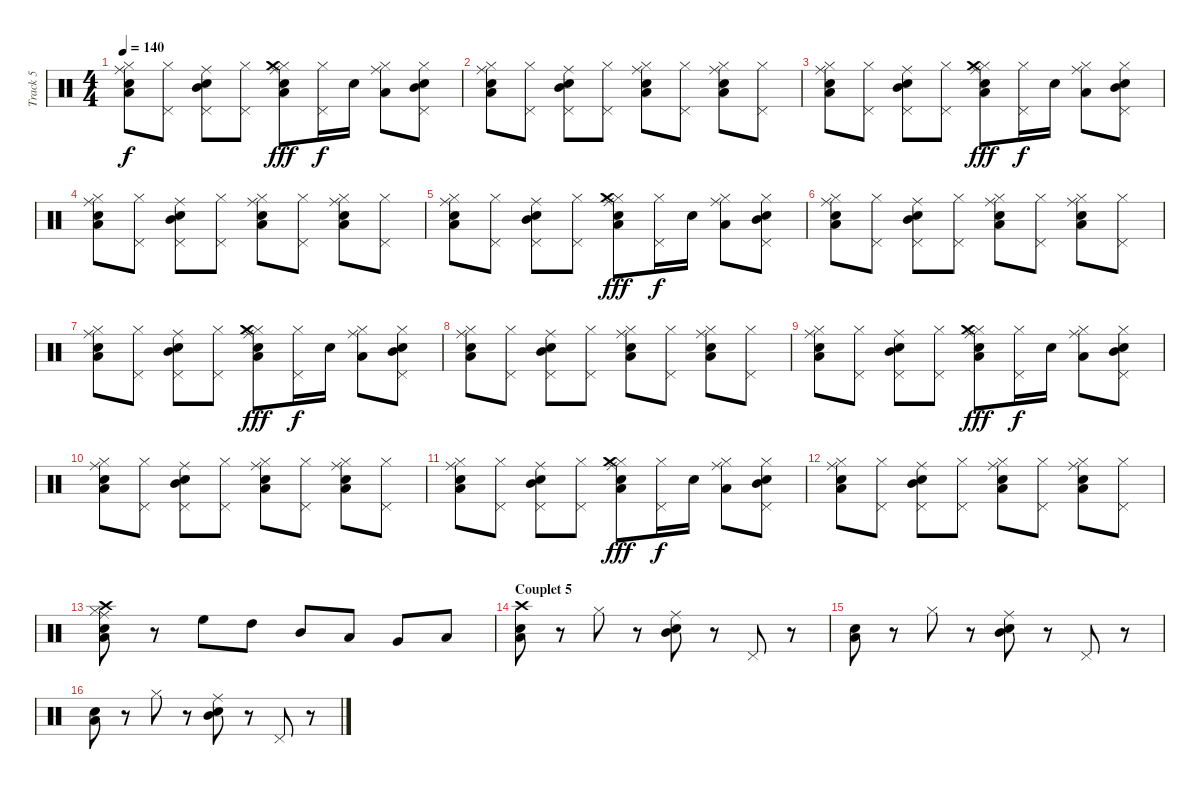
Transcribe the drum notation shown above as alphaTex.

\track ("Track 5" "Track 5") {instrument percussion}
\staff {score}
\articulation defaults
\ts (4 4)
\tempo 140
\clef neutral
\ks c
("Low Tom (hit)" "Hi-Hat (closed)" "Ride (middle)" "Electric Snare (hit)").8{dy f} ("Hi-Hat (closed)" "Pedal Hi-Hat (hit)").8 ("Mid Tom (hit)" "Pedal Hi-Hat (hit)" "Ride (middle)" "Electric Snare (hit)").8 ("Hi-Hat (closed)" "Pedal Hi-Hat (hit)").8 ("Low Tom (hit)" "Hi-Hat (closed)" "Ride (middle)" "Electric Snare (hit)" "Crash medium (hit)").8{dy fff} ("Hi-Hat (closed)" "Pedal Hi-Hat (hit)").16{dy f} "Electric Snare (hit)".16 ("Low Tom (hit)" "Hi-Hat (closed)" "Ride (middle)").8 ("Hi-Hat (closed)" "Pedal Hi-Hat (hit)" "Mid Tom (hit)" "Electric Snare (hit)").8 |
("Low Tom (hit)" "Hi-Hat (closed)" "Ride (middle)" "Snare (hit) 2").8 ("Hi-Hat (closed)" "Pedal Hi-Hat (hit)").8 ("Mid Tom (hit)" "Pedal Hi-Hat (hit)" "Ride (middle)" "Electric Snare (hit)").8 ("Hi-Hat (closed)" "Pedal Hi-Hat (hit)").8 ("Low Tom (hit)" "Hi-Hat (closed)" "Ride (middle)" "Electric Snare (hit)").8 ("Hi-Hat (closed)" "Pedal Hi-Hat (hit)").8 ("Low Tom (hit)" "Hi-Hat (closed)" "Ride (middle)" "Electric Snare (hit)").8 ("Hi-Hat (closed)" "Pedal Hi-Hat (hit)").8 |
("Low Tom (hit)" "Hi-Hat (closed)" "Ride (middle)" "Electric Snare (hit)").8 ("Hi-Hat (closed)" "Pedal Hi-Hat (hit)").8 ("Mid Tom (hit)" "Pedal Hi-Hat (hit)" "Ride (middle)" "Electric Snare (hit)").8 ("Hi-Hat (closed)" "Pedal Hi-Hat (hit)").8 ("Low Tom (hit)" "Hi-Hat (closed)" "Ride (middle)" "Electric Snare (hit)" "Crash medium (hit)").8{dy fff} ("Hi-Hat (closed)" "Pedal Hi-Hat (hit)").16{dy f} "Electric Snare (hit)".16 ("Low Tom (hit)" "Hi-Hat (closed)" "Ride (middle)").8 ("Hi-Hat (closed)" "Pedal Hi-Hat (hit)" "Mid Tom (hit)" "Electric Snare (hit)").8 |
("Low Tom (hit)" "Hi-Hat (closed)" "Ride (middle)" "Snare (hit) 2").8 ("Hi-Hat (closed)" "Pedal Hi-Hat (hit)").8 ("Mid Tom (hit)" "Pedal Hi-Hat (hit)" "Ride (middle)" "Electric Snare (hit)").8 ("Hi-Hat (closed)" "Pedal Hi-Hat (hit)").8 ("Low Tom (hit)" "Hi-Hat (closed)" "Ride (middle)" "Electric Snare (hit)").8 ("Hi-Hat (closed)" "Pedal Hi-Hat (hit)").8 ("Low Tom (hit)" "Hi-Hat (closed)" "Ride (middle)" "Electric Snare (hit)").8 ("Hi-Hat (closed)" "Pedal Hi-Hat (hit)").8 |
("Low Tom (hit)" "Hi-Hat (closed)" "Ride (middle)" "Electric Snare (hit)").8 ("Hi-Hat (closed)" "Pedal Hi-Hat (hit)").8 ("Mid Tom (hit)" "Pedal Hi-Hat (hit)" "Ride (middle)" "Electric Snare (hit)").8 ("Hi-Hat (closed)" "Pedal Hi-Hat (hit)").8 ("Low Tom (hit)" "Hi-Hat (closed)" "Ride (middle)" "Electric Snare (hit)" "Crash medium (hit)").8{dy fff} ("Hi-Hat (closed)" "Pedal Hi-Hat (hit)").16{dy f} "Electric Snare (hit)".16 ("Low Tom (hit)" "Hi-Hat (closed)" "Ride (middle)").8 ("Hi-Hat (closed)" "Pedal Hi-Hat (hit)" "Mid Tom (hit)" "Electric Snare (hit)").8 |
("Low Tom (hit)" "Hi-Hat (closed)" "Ride (middle)" "Snare (hit) 2").8 ("Hi-Hat (closed)" "Pedal Hi-Hat (hit)").8 ("Mid Tom (hit)" "Pedal Hi-Hat (hit)" "Ride (middle)" "Electric Snare (hit)").8 ("Hi-Hat (closed)" "Pedal Hi-Hat (hit)").8 ("Low Tom (hit)" "Hi-Hat (closed)" "Ride (middle)" "Electric Snare (hit)").8 ("Hi-Hat (closed)" "Pedal Hi-Hat (hit)").8 ("Low Tom (hit)" "Hi-Hat (closed)" "Ride (middle)" "Electric Snare (hit)").8 ("Hi-Hat (closed)" "Pedal Hi-Hat (hit)").8 |
("Low Tom (hit)" "Hi-Hat (closed)" "Ride (middle)" "Electric Snare (hit)").8 ("Hi-Hat (closed)" "Pedal Hi-Hat (hit)").8 ("Mid Tom (hit)" "Pedal Hi-Hat (hit)" "Ride (middle)" "Electric Snare (hit)").8 ("Hi-Hat (closed)" "Pedal Hi-Hat (hit)").8 ("Low Tom (hit)" "Hi-Hat (closed)" "Ride (middle)" "Electric Snare (hit)" "Crash medium (hit)").8{dy fff} ("Hi-Hat (closed)" "Pedal Hi-Hat (hit)").16{dy f} "Electric Snare (hit)".16 ("Low Tom (hit)" "Hi-Hat (closed)" "Ride (middle)").8 ("Hi-Hat (closed)" "Pedal Hi-Hat (hit)" "Mid Tom (hit)" "Electric Snare (hit)").8 |
("Low Tom (hit)" "Hi-Hat (closed)" "Ride (middle)" "Snare (hit) 2").8 ("Hi-Hat (closed)" "Pedal Hi-Hat (hit)").8 ("Mid Tom (hit)" "Pedal Hi-Hat (hit)" "Ride (middle)" "Electric Snare (hit)").8 ("Hi-Hat (closed)" "Pedal Hi-Hat (hit)").8 ("Low Tom (hit)" "Hi-Hat (closed)" "Ride (middle)" "Electric Snare (hit)").8 ("Hi-Hat (closed)" "Pedal Hi-Hat (hit)").8 ("Low Tom (hit)" "Hi-Hat (closed)" "Ride (middle)" "Electric Snare (hit)").8 ("Hi-Hat (closed)" "Pedal Hi-Hat (hit)").8 |
("Low Tom (hit)" "Hi-Hat (closed)" "Ride (middle)" "Electric Snare (hit)").8 ("Hi-Hat (closed)" "Pedal Hi-Hat (hit)").8 ("Mid Tom (hit)" "Pedal Hi-Hat (hit)" "Ride (middle)" "Electric Snare (hit)").8 ("Hi-Hat (closed)" "Pedal Hi-Hat (hit)").8 ("Low Tom (hit)" "Hi-Hat (closed)" "Ride (middle)" "Electric Snare (hit)" "Crash medium (hit)").8{dy fff} ("Hi-Hat (closed)" "Pedal Hi-Hat (hit)").16{dy f} "Electric Snare (hit)".16 ("Low Tom (hit)" "Hi-Hat (closed)" "Ride (middle)").8 ("Hi-Hat (closed)" "Pedal Hi-Hat (hit)" "Mid Tom (hit)" "Electric Snare (hit)").8 |
("Low Tom (hit)" "Hi-Hat (closed)" "Ride (middle)" "Snare (hit) 2").8 ("Hi-Hat (closed)" "Pedal Hi-Hat (hit)").8 ("Mid Tom (hit)" "Pedal Hi-Hat (hit)" "Ride (middle)" "Electric Snare (hit)").8 ("Hi-Hat (closed)" "Pedal Hi-Hat (hit)").8 ("Low Tom (hit)" "Hi-Hat (closed)" "Ride (middle)" "Electric Snare (hit)").8 ("Hi-Hat (closed)" "Pedal Hi-Hat (hit)").8 ("Low Tom (hit)" "Hi-Hat (closed)" "Ride (middle)" "Electric Snare (hit)").8 ("Hi-Hat (closed)" "Pedal Hi-Hat (hit)").8 |
("Low Tom (hit)" "Hi-Hat (closed)" "Ride (middle)" "Electric Snare (hit)").8 ("Hi-Hat (closed)" "Pedal Hi-Hat (hit)").8 ("Mid Tom (hit)" "Pedal Hi-Hat (hit)" "Ride (middle)" "Electric Snare (hit)").8 ("Hi-Hat (closed)" "Pedal Hi-Hat (hit)").8 ("Low Tom (hit)" "Hi-Hat (closed)" "Ride (middle)" "Electric Snare (hit)" "Crash medium (hit)").8{dy fff} ("Hi-Hat (closed)" "Pedal Hi-Hat (hit)").16{dy f} "Electric Snare (hit)".16 ("Low Tom (hit)" "Hi-Hat (closed)" "Ride (middle)").8 ("Hi-Hat (closed)" "Pedal Hi-Hat (hit)" "Mid Tom (hit)" "Electric Snare (hit)").8 |
("Low Tom (hit)" "Hi-Hat (closed)" "Ride (middle)" "Snare (hit) 2").8 ("Hi-Hat (closed)" "Pedal Hi-Hat (hit)").8 ("Mid Tom (hit)" "Pedal Hi-Hat (hit)" "Ride (middle)" "Electric Snare (hit)").8 ("Hi-Hat (closed)" "Pedal Hi-Hat (hit)").8 ("Low Tom (hit)" "Hi-Hat (closed)" "Ride (middle)" "Electric Snare (hit)").8 ("Hi-Hat (closed)" "Pedal Hi-Hat (hit)").8 ("Low Tom (hit)" "Hi-Hat (closed)" "Ride (middle)" "Electric Snare (hit)").8 ("Hi-Hat (closed)" "Pedal Hi-Hat (hit)").8 |
("Low Tom (hit)" "Hi-Hat (closed)" "Ride (middle)" "Snare (hit) 2" "Crash high (hit)").8 r.8 "High Floor Tom (hit)".8 "High Tom (hit)".8 "Mid Tom (hit)".8 "Low Tom (hit)".8 "Very Low Tom (hit)".8 "Low Floor Tom (hit)".8 |
\section ("" "Couplet 5")
("Low Tom (hit)" "Snare (hit) 2" "Crash high (hit)").8 r.8 "Hi-Hat (closed)".8 r.8 ("Mid Tom (hit)" "Electric Snare (hit)" "Ride (middle)").8 r.8 "Pedal Hi-Hat (hit)".8 r.8 |
("Low Tom (hit)" "Snare (hit) 2").8 r.8 "Hi-Hat (closed)".8 r.8 ("Mid Tom (hit)" "Electric Snare (hit)" "Ride (middle)").8 r.8 "Pedal Hi-Hat (hit)".8 r.8 |
("Low Tom (hit)" "Snare (hit) 2").8 r.8 "Hi-Hat (closed)".8 r.8 ("Mid Tom (hit)" "Electric Snare (hit)" "Ride (middle)").8 r.8 "Pedal Hi-Hat (hit)".8 r.8
